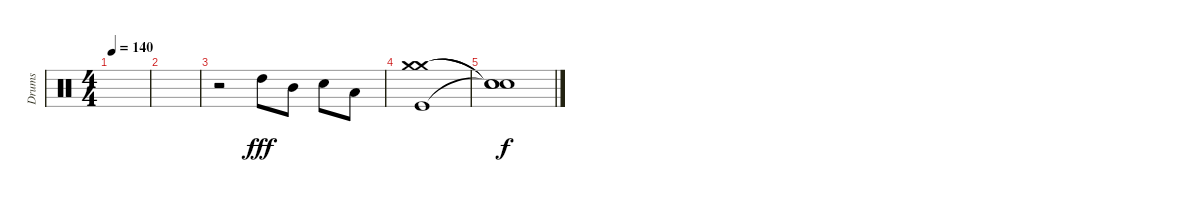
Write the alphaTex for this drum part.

\track ("Drums" "Drums") {instrument percussion}
\staff {score}
\articulation defaults
\ts (4 4)
\tempo 140
\clef neutral
\ks c
|
|
r.2 "High Tom (hit)".8{dy fff} "Mid Tom (hit)".8 "Snare (hit) 2".8 "Low Floor Tom (hit)".8 |
("Crash medium (hit)" "Kick (hit)" "Crash medium (hit)").1 |
("Snare (hit)"{t} "Snare (hit)"{t} "Snare (hit)"{t}).1{dy f}
